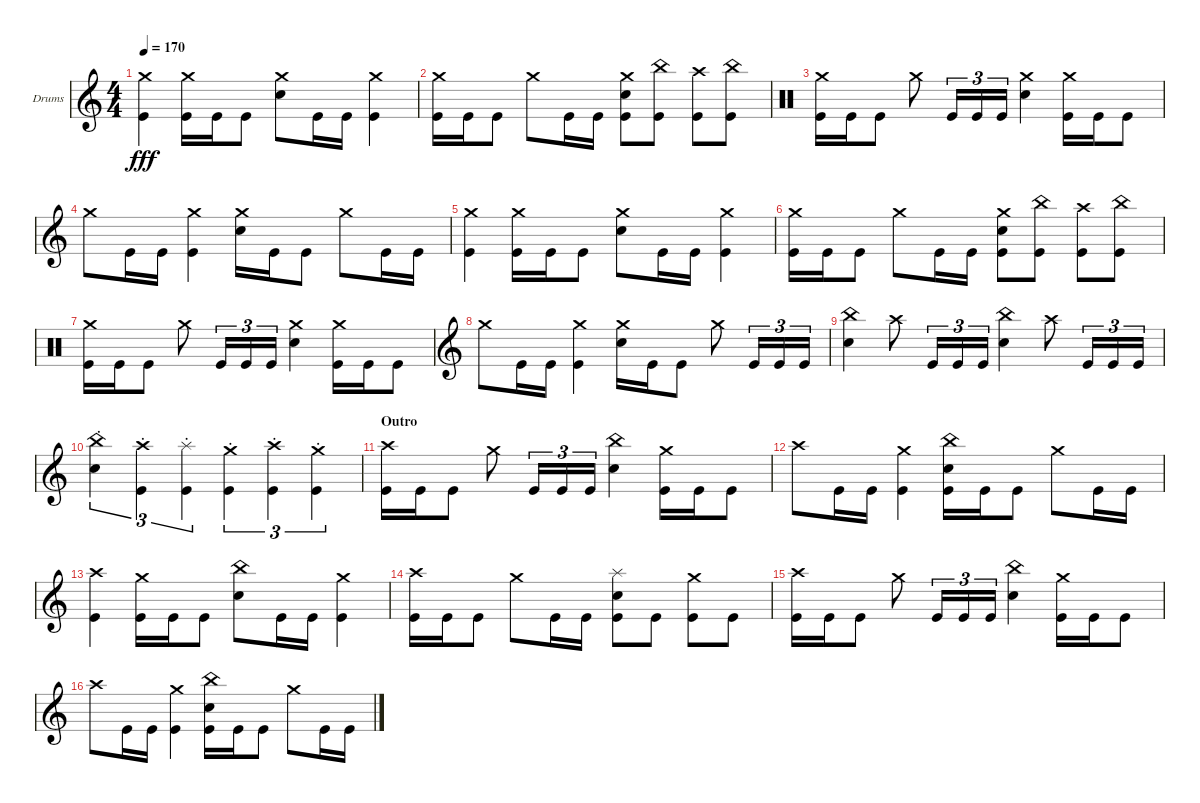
\defaultSystemsLayout 4
\bracketExtendMode groupsimilarinstruments
\firstSystemTrackNameOrientation horizontal
\otherSystemsTrackNameOrientation horizontal
\track ("Chris Adler" "Drums") {instrument percussion}
\staff {score}
\articulation defaults
\ts (4 4)
\tempo 170
\clef g2
\ks c
("Kick (hit)" "Crash medium (hit)").4{dy fff} ("Kick (hit)" "Crash medium (hit)").16 "Kick (hit)".16 "Kick (hit)".8 ("Snare (hit) 2" "Crash medium (hit)").8 "Kick (hit)".16 "Kick (hit)".16 ("Kick (hit)" "Crash medium (hit)").4 |
("Kick (hit)" "Crash medium (hit)").16 "Kick (hit)".16 "Kick (hit)".8 "Crash medium (hit)".8 "Kick (hit)".16 "Kick (hit)".16 ("Snare (hit) 2" "Kick (hit)" "Crash medium (hit)").8 ("Kick (hit)" "China (hit)").8 ("Kick (hit)" "Crash high (hit)").8 ("Kick (hit)" "China (hit)").8 |
\clef neutral
("Kick (hit)" "Crash medium (hit)").16 "Kick (hit)".16 "Kick (hit)".8 "Crash medium (hit)".8 "Kick (hit)".16{tu (3 2)} "Kick (hit)".16{tu (3 2)} "Kick (hit)".16{tu (3 2)} ("Snare (hit) 2" "Crash medium (hit)").4 ("Kick (hit)" "Crash medium (hit)").16 "Kick (hit)".16 "Kick (hit)".8 |
\clef g2 "Crash medium (hit)".8 "Kick (hit)".16 "Kick (hit)".16
("Kick (hit)" "Crash medium (hit)").4 ("Snare (hit) 2" "Crash medium (hit)").16 "Kick (hit)".16 "Kick (hit)".8 "Crash medium (hit)".8 "Kick (hit)".16 "Kick (hit)".16 |
("Kick (hit)" "Crash medium (hit)").4 ("Kick (hit)" "Crash medium (hit)").16 "Kick (hit)".16 "Kick (hit)".8 ("Snare (hit) 2" "Crash medium (hit)").8 "Kick (hit)".16 "Kick (hit)".16 ("Kick (hit)" "Crash medium (hit)").4 |
("Kick (hit)" "Crash medium (hit)").16 "Kick (hit)".16 "Kick (hit)".8 "Crash medium (hit)".8 "Kick (hit)".16 "Kick (hit)".16 ("Snare (hit) 2" "Kick (hit)" "Crash medium (hit)").8 ("Kick (hit)" "China (hit)").8 ("Kick (hit)" "Crash high (hit)").8 ("Kick (hit)" "China (hit)").8 |
\clef neutral
("Kick (hit)" "Crash medium (hit)").16 "Kick (hit)".16 "Kick (hit)".8 "Crash medium (hit)".8 "Kick (hit)".16{tu (3 2)} "Kick (hit)".16{tu (3 2)} "Kick (hit)".16{tu (3 2)} ("Snare (hit) 2" "Crash medium (hit)").4 ("Kick (hit)" "Crash medium (hit)").16 "Kick (hit)".16 "Kick (hit)".8 |
\clef g2 "Crash medium (hit)".8 "Kick (hit)".16 "Kick (hit)".16
("Kick (hit)" "Crash medium (hit)").4 ("Snare (hit) 2" "Crash medium (hit)").16 "Kick (hit)".16 "Kick (hit)".8 "Crash medium (hit)".8 "Kick (hit)".16{tu (3 2)} "Kick (hit)".16{tu (3 2)} "Kick (hit)".16{tu (3 2)} |
("Snare (hit) 2" "China (hit)").4 "Crash high (hit)".8 "Kick (hit)".16{tu (3 2)} "Kick (hit)".16{tu (3 2)} "Kick (hit)".16{tu (3 2)} ("Snare (hit) 2" "China (hit)").4 "Crash high (hit)".8 "Kick (hit)".16{tu (3 2)} "Kick (hit)".16{tu (3 2)} "Kick (hit)".16{tu (3 2)} |
("Snare (hit) 2"{st} "China (hit)"{st}).4{tu (3 2)} ("Kick (hit)"{st} "Crash high (hit)"{st}).4{tu (3 2)} ("Kick (hit)"{st} "Splash (hit)"{st}).4{tu (3 2)} ("Kick (hit)"{st} "Crash medium (hit)"{st}).4{tu (3 2)} ("Kick (hit)"{st} "Crash high (hit)"{st}).4{tu (3 2)} ("Kick (hit)"{st} "Crash medium (hit)"{st}).4{tu (3 2)} |
\section ("" "Outro")
("Kick (hit)" "Crash high (hit)").16 "Kick (hit)".16 "Kick (hit)".8 "Crash medium (hit)".8 "Kick (hit)".16{tu (3 2)} "Kick (hit)".16{tu (3 2)} "Kick (hit)".16{tu (3 2)} ("Snare (hit) 2" "China (hit)").4 ("Kick (hit)" "Crash medium (hit)").16 "Kick (hit)".16 "Kick (hit)".8 |
"Crash high (hit)".8 "Kick (hit)".16 "Kick (hit)".16 ("Kick (hit)" "Crash medium (hit)").4 ("Kick (hit)" "Snare (hit) 2" "China (hit)").16 "Kick (hit)".16 "Kick (hit)".8 "Crash medium (hit)".8 "Kick (hit)".16 "Kick (hit)".16 |
("Kick (hit)" "Crash high (hit)").4 ("Kick (hit)" "Crash medium (hit)").16 "Kick (hit)".16 "Kick (hit)".8 ("Snare (hit) 2" "China (hit)").8 "Kick (hit)".16 "Kick (hit)".16 ("Kick (hit)" "Crash medium (hit)").4 |
("Kick (hit)" "Crash high (hit)").16 "Kick (hit)".16 "Kick (hit)".8 "Crash medium (hit)".8 "Kick (hit)".16 "Kick (hit)".16 ("Kick (hit)" "Snare (hit) 2" "Splash (hit)").8 "Kick (hit)".8 ("Kick (hit)" "Crash medium (hit)").8 "Kick (hit)".8 |
("Kick (hit)" "Crash high (hit)").16 "Kick (hit)".16 "Kick (hit)".8 "Crash medium (hit)".8 "Kick (hit)".16{tu (3 2)} "Kick (hit)".16{tu (3 2)} "Kick (hit)".16{tu (3 2)} ("Snare (hit) 2" "China (hit)").4 ("Kick (hit)" "Crash medium (hit)").16 "Kick (hit)".16 "Kick (hit)".8 |
"Crash high (hit)".8 "Kick (hit)".16 "Kick (hit)".16 ("Kick (hit)" "Crash medium (hit)").4 ("Kick (hit)" "Snare (hit) 2" "China (hit)").16 "Kick (hit)".16 "Kick (hit)".8 "Crash medium (hit)".8 "Kick (hit)".16 "Kick (hit)".16
